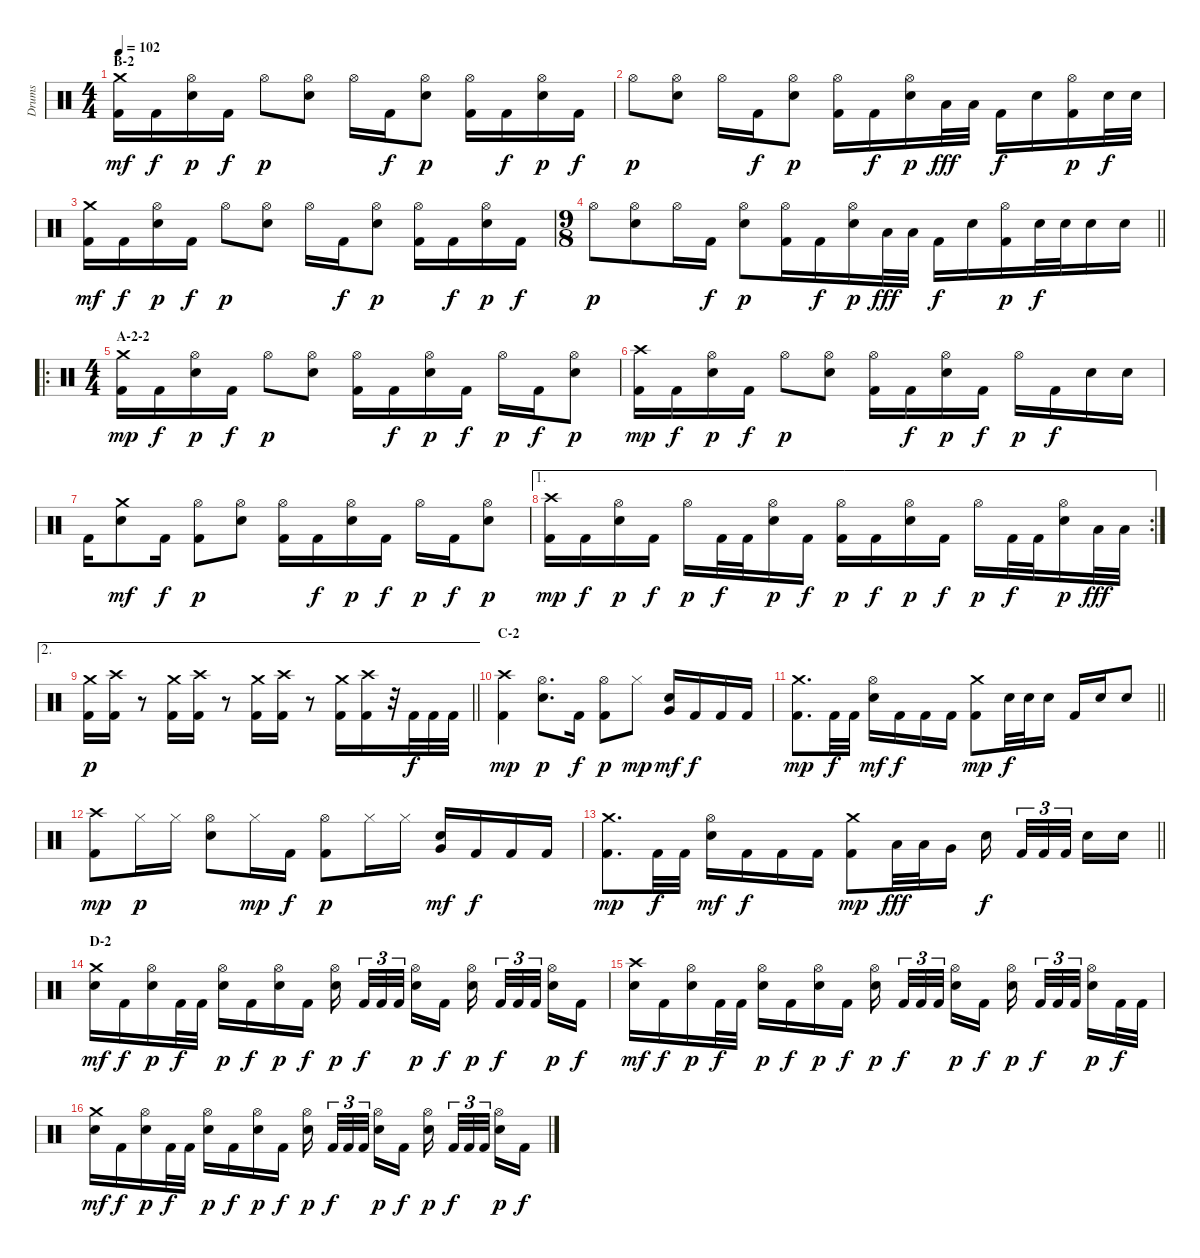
\track ("Drums" "Drums") {instrument percussion}
\staff {score}
\articulation defaults
\ts (4 4)
\section ("" "B-2")
\tempo 102
\clef neutral
\ks c
("Crash medium (hit)" "Kick (hit) 2").16{dy mf} "Kick (hit) 2".16{dy f} ("Hi-Hat (open)" "Electric Snare (hit)").16{dy p} "Kick (hit) 2".16{dy f} "Hi-Hat (open)".8{dy p} ("Hi-Hat (open)" "Electric Snare (hit)").8 "Hi-Hat (open)".16 "Kick (hit) 2".16{dy f} ("Hi-Hat (open)" "Electric Snare (hit)").8{dy p} ("Hi-Hat (open)" "Kick (hit) 2").16 "Kick (hit) 2".16{dy f} ("Hi-Hat (open)" "Electric Snare (hit)").16{dy p} "Kick (hit) 2".16{dy f} |
"Hi-Hat (open)".8{dy p} ("Hi-Hat (open)" "Electric Snare (hit)").8 "Hi-Hat (open)".16 "Kick (hit) 2".16{dy f} ("Hi-Hat (open)" "Electric Snare (hit)").8{dy p} ("Hi-Hat (open)" "Kick (hit) 2").16 "Kick (hit) 2".16{dy f} ("Hi-Hat (open)" "Electric Snare (hit)").16{dy p} "Low Tom (hit)".32{dy fff} "Low Tom (hit)".32 "Kick (hit) 2".16{dy f} "Electric Snare (hit)".16 ("Hi-Hat (open)" "Kick (hit) 2").16{dy p} "Electric Snare (hit)".32{dy f} "Electric Snare (hit)".32 |
("Crash medium (hit)" "Kick (hit) 2").16{dy mf} "Kick (hit) 2".16{dy f} ("Hi-Hat (open)" "Electric Snare (hit)").16{dy p} "Kick (hit) 2".16{dy f} "Hi-Hat (open)".8{dy p} ("Hi-Hat (open)" "Electric Snare (hit)").8 "Hi-Hat (open)".16 "Kick (hit) 2".16{dy f} ("Hi-Hat (open)" "Electric Snare (hit)").8{dy p} ("Hi-Hat (open)" "Kick (hit) 2").16 "Kick (hit) 2".16{dy f} ("Hi-Hat (open)" "Electric Snare (hit)").16{dy p} "Kick (hit) 2".16{dy f} |
\ts (9 8)
\barLineRight lightlight "Hi-Hat (open)".8{dy p}
("Hi-Hat (open)" "Electric Snare (hit)").8 "Hi-Hat (open)".16 "Kick (hit) 2".16{dy f} ("Hi-Hat (open)" "Electric Snare (hit)").8{dy p} ("Hi-Hat (open)" "Kick (hit) 2").16 "Kick (hit) 2".16{dy f} ("Hi-Hat (open)" "Electric Snare (hit)").16{dy p} "Low Tom (hit)".32{dy fff} "Low Tom (hit)".32 "Kick (hit) 2".16{dy f} "Electric Snare (hit)".16 ("Hi-Hat (open)" "Kick (hit) 2").16{dy p} "Electric Snare (hit)".32{dy f} "Electric Snare (hit)".32 "Electric Snare (hit)".16 "Electric Snare (hit)".16 |
\ro
\ts (4 4)
\section ("" "A-2-2")
("Crash medium (hit)" "Kick (hit) 2").16{dy mp} "Kick (hit) 2".16{dy f} ("Hi-Hat (open)" "Electric Snare (hit)").16{dy p} "Kick (hit) 2".16{dy f} "Hi-Hat (open)".8{dy p} ("Hi-Hat (open)" "Electric Snare (hit)").8 ("Hi-Hat (open)" "Kick (hit) 2").16 "Kick (hit) 2".16{dy f} ("Hi-Hat (open)" "Electric Snare (hit)").16{dy p} "Kick (hit) 2".16{dy f} "Hi-Hat (open)".16{dy p} "Kick (hit) 2".16{dy f} ("Hi-Hat (open)" "Electric Snare (hit)").8{dy p} |
("Crash high (hit)" "Kick (hit) 2").16{dy mp} "Kick (hit) 2".16{dy f} ("Hi-Hat (open)" "Electric Snare (hit)").16{dy p} "Kick (hit) 2".16{dy f} "Hi-Hat (open)".8{dy p} ("Hi-Hat (open)" "Electric Snare (hit)").8 ("Hi-Hat (open)" "Kick (hit) 2").16 "Kick (hit) 2".16{dy f} ("Hi-Hat (open)" "Electric Snare (hit)").16{dy p} "Kick (hit) 2".16{dy f} "Hi-Hat (open)".16{dy p} "Kick (hit) 2".16{dy f} "Electric Snare (hit)".16 "Electric Snare (hit)".16 |
"Kick (hit) 2".16 ("Crash medium (hit)" "Electric Snare (hit)").8{dy mf} "Kick (hit) 2".16{dy f} ("Hi-Hat (open)" "Kick (hit) 2").8{dy p} ("Hi-Hat (open)" "Electric Snare (hit)").8 ("Hi-Hat (open)" "Kick (hit) 2").16 "Kick (hit) 2".16{dy f} ("Hi-Hat (open)" "Electric Snare (hit)").16{dy p} "Kick (hit) 2".16{dy f} "Hi-Hat (open)".16{dy p} "Kick (hit) 2".16{dy f} ("Hi-Hat (open)" "Electric Snare (hit)").8{dy p} |
\ae 1
\rc 2
("Crash high (hit)" "Kick (hit) 2").16{dy mp} "Kick (hit) 2".16{dy f} ("Hi-Hat (open)" "Electric Snare (hit)").16{dy p} "Kick (hit) 2".16{dy f} "Hi-Hat (open)".16{dy p} "Kick (hit) 2".32{dy f} "Kick (hit) 2".32 ("Hi-Hat (open)" "Electric Snare (hit)").16{dy p} "Kick (hit) 2".16{dy f} ("Hi-Hat (open)" "Kick (hit) 2").16{dy p} "Kick (hit) 2".16{dy f} ("Hi-Hat (open)" "Electric Snare (hit)").16{dy p} "Kick (hit) 2".16{dy f} "Hi-Hat (open)".16{dy p} "Kick (hit) 2".32{dy f} "Kick (hit) 2".32 ("Hi-Hat (open)" "Electric Snare (hit)").16{dy p} "Low Tom (hit)".32{dy fff} "Low Tom (hit)".32 |
\ae 2
\barLineRight lightlight
("Crash medium (hit)" "Kick (hit) 2").16{dy p} ("Crash high (hit)" "Kick (hit) 2").16 r.8 ("Crash medium (hit)" "Kick (hit) 2").16 ("Crash high (hit)" "Kick (hit) 2").16 r.8 ("Crash medium (hit)" "Kick (hit) 2").16 ("Crash high (hit)" "Kick (hit) 2").16 r.8 ("Crash medium (hit)" "Kick (hit) 2").16 ("Crash high (hit)" "Kick (hit) 2").16 r.32 "Kick (hit) 2".32{dy f} "Kick (hit) 2".32 "Kick (hit) 2".32 |
\section ("" "C-2")
("Crash high (hit)" "Kick (hit) 2").4{dy mp} ("Hi-Hat (open)" "Electric Snare (hit)").8{d dy p} "Kick (hit) 2".16{dy f} ("Hi-Hat (open)" "Kick (hit) 2").8{dy p} "Hi-Hat (closed)".8{dy mp} ("Very Low Tom (hit)" "Electric Snare (hit)").16{dy mf} "Kick (hit) 2".16{dy f} "Kick (hit) 2".16 "Kick (hit) 2".16 |
\barLineRight lightlight
("Crash medium (hit)" "Kick (hit) 2").8{d dy mp} "Kick (hit) 2".32{dy f} "Kick (hit) 2".32 ("Hi-Hat (open)" "Electric Snare (hit)").16{dy mf} "Kick (hit) 2".16{dy f} "Kick (hit) 2".16 "Kick (hit) 2".16 ("Crash medium (hit)" "Kick (hit) 2").8{dy mp} "Electric Snare (hit)".32{dy f} "Electric Snare (hit)".32 "Electric Snare (hit)".16 "Kick (hit) 2".16 "Electric Snare (hit)".16 "Electric Snare (hit)".8 |
("Crash high (hit)" "Kick (hit) 2").8{dy mp} "Hi-Hat (closed)".16{dy p} "Hi-Hat (closed)".16 ("Hi-Hat (open)" "Electric Snare (hit)").8 "Hi-Hat (closed)".16{dy mp} "Kick (hit) 2".16{dy f} ("Hi-Hat (open)" "Kick (hit) 2").8{dy p} "Hi-Hat (closed)".16 "Hi-Hat (closed)".16 ("Very Low Tom (hit)" "Electric Snare (hit)").16{dy mf} "Kick (hit) 2".16{dy f} "Kick (hit) 2".16 "Kick (hit) 2".16 |
\barLineRight lightlight
("Crash medium (hit)" "Kick (hit) 2").8{d dy mp} "Kick (hit) 2".32{dy f} "Kick (hit) 2".32 ("Hi-Hat (open)" "Electric Snare (hit)").16{dy mf} "Kick (hit) 2".16{dy f} "Kick (hit) 2".16 "Kick (hit) 2".16 ("Crash medium (hit)" "Kick (hit) 2").8{dy mp} "Low Tom (hit)".32{dy fff} "Low Tom (hit)".32 "Very Low Tom (hit)".16 "Electric Snare (hit)".16{dy f beam splitsecondary} "Kick (hit) 2".32{tu (3 2)} "Kick (hit) 2".32{tu (3 2)} "Kick (hit) 2".32{tu (3 2) beam splitsecondary} "Electric Snare (hit)".16 "Electric Snare (hit)".16 |
\section ("" "D-2")
("Crash medium (hit)" "Electric Snare (hit)").16{dy mf} "Kick (hit) 2".16{dy f} ("Hi-Hat (open)" "Electric Snare (hit)").16{dy p} "Kick (hit) 2".32{dy f} "Kick (hit) 2".32 ("Hi-Hat (open)" "Electric Snare (hit)").16{dy p} "Kick (hit) 2".16{dy f} ("Hi-Hat (open)" "Electric Snare (hit)").16{dy p} "Kick (hit) 2".16{dy f} ("Hi-Hat (open)" "Electric Snare (hit)").16{dy p beam splitsecondary} "Kick (hit) 2".32{tu (3 2) dy f} "Kick (hit) 2".32{tu (3 2)} "Kick (hit) 2".32{tu (3 2) beam splitsecondary} ("Hi-Hat (open)" "Electric Snare (hit)").16{dy p} "Kick (hit) 2".16{dy f} ("Hi-Hat (open)" "Electric Snare (hit)").16{dy p beam splitsecondary} "Kick (hit) 2".32{tu (3 2) dy f} "Kick (hit) 2".32{tu (3 2)} "Kick (hit) 2".32{tu (3 2) beam splitsecondary} ("Hi-Hat (open)" "Electric Snare (hit)").16{dy p} "Kick (hit) 2".16{dy f} |
("Crash high (hit)" "Electric Snare (hit)").16{dy mf} "Kick (hit) 2".16{dy f} ("Hi-Hat (open)" "Electric Snare (hit)").16{dy p} "Kick (hit) 2".32{dy f} "Kick (hit) 2".32 ("Hi-Hat (open)" "Electric Snare (hit)").16{dy p} "Kick (hit) 2".16{dy f} ("Hi-Hat (open)" "Electric Snare (hit)").16{dy p} "Kick (hit) 2".16{dy f} ("Hi-Hat (open)" "Electric Snare (hit)").16{dy p beam splitsecondary} "Kick (hit) 2".32{tu (3 2) dy f} "Kick (hit) 2".32{tu (3 2)} "Kick (hit) 2".32{tu (3 2) beam splitsecondary} ("Hi-Hat (open)" "Electric Snare (hit)").16{dy p} "Kick (hit) 2".16{dy f} ("Hi-Hat (open)" "Electric Snare (hit)").16{dy p beam splitsecondary} "Kick (hit) 2".32{tu (3 2) dy f} "Kick (hit) 2".32{tu (3 2)} "Kick (hit) 2".32{tu (3 2) beam splitsecondary} ("Hi-Hat (open)" "Electric Snare (hit)").16{dy p} "Kick (hit) 2".32{dy f} "Kick (hit) 2".32 |
("Crash medium (hit)" "Electric Snare (hit)").16{dy mf} "Kick (hit) 2".16{dy f} ("Hi-Hat (open)" "Electric Snare (hit)").16{dy p} "Kick (hit) 2".32{dy f} "Kick (hit) 2".32 ("Hi-Hat (open)" "Electric Snare (hit)").16{dy p} "Kick (hit) 2".16{dy f} ("Hi-Hat (open)" "Electric Snare (hit)").16{dy p} "Kick (hit) 2".16{dy f} ("Hi-Hat (open)" "Electric Snare (hit)").16{dy p beam splitsecondary} "Kick (hit) 2".32{tu (3 2) dy f} "Kick (hit) 2".32{tu (3 2)} "Kick (hit) 2".32{tu (3 2) beam splitsecondary} ("Hi-Hat (open)" "Electric Snare (hit)").16{dy p} "Kick (hit) 2".16{dy f} ("Hi-Hat (open)" "Electric Snare (hit)").16{dy p beam splitsecondary} "Kick (hit) 2".32{tu (3 2) dy f} "Kick (hit) 2".32{tu (3 2)} "Kick (hit) 2".32{tu (3 2) beam splitsecondary} ("Hi-Hat (open)" "Electric Snare (hit)").16{dy p} "Kick (hit) 2".16{dy f}
